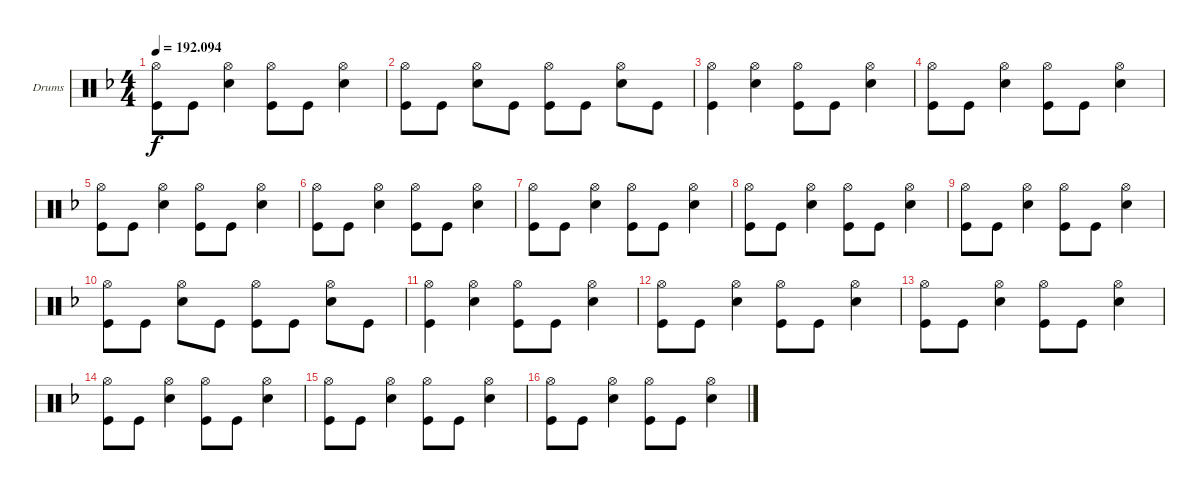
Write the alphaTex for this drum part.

\bracketExtendMode groupsimilarinstruments
\firstSystemTrackNameOrientation horizontal
\otherSystemsTrackNameOrientation horizontal
\track ("Александр Манякин" "Drums") {instrument percussion}
\staff {score}
\articulation defaults
\ts (4 4)
\tempo
192.094
\accidentals auto
\clef neutral
\ottava regular
\simile none
\ks f
("Hi-Hat (open)" "Kick (hit)").8{dy f} "Kick (hit)".8 ("Hi-Hat (open)" "Snare (hit) 2").4 ("Hi-Hat (open)" "Kick (hit)").8 "Kick (hit)".8 ("Hi-Hat (open)" "Snare (hit) 2").4 |
("Hi-Hat (open)" "Kick (hit)").8 "Kick (hit)".8 ("Hi-Hat (open)" "Snare (hit) 2").8 "Kick (hit)".8 ("Hi-Hat (open)" "Kick (hit)").8 "Kick (hit)".8 ("Hi-Hat (open)" "Snare (hit) 2").8 "Kick (hit)".8 |
("Hi-Hat (open)" "Kick (hit)").4 ("Hi-Hat (open)" "Snare (hit) 2").4 ("Hi-Hat (open)" "Kick (hit)").8 "Kick (hit)".8 ("Hi-Hat (open)" "Snare (hit) 2").4 |
("Hi-Hat (open)" "Kick (hit)").8 "Kick (hit)".8 ("Hi-Hat (open)" "Snare (hit) 2").4 ("Hi-Hat (open)" "Kick (hit)").8 "Kick (hit)".8 ("Hi-Hat (open)" "Snare (hit) 2").4 |
("Hi-Hat (open)" "Kick (hit)").8 "Kick (hit)".8 ("Hi-Hat (open)" "Snare (hit) 2").4 ("Hi-Hat (open)" "Kick (hit)").8 "Kick (hit)".8 ("Hi-Hat (open)" "Snare (hit) 2").4 |
("Hi-Hat (open)" "Kick (hit)").8 "Kick (hit)".8 ("Hi-Hat (open)" "Snare (hit) 2").4 ("Hi-Hat (open)" "Kick (hit)").8 "Kick (hit)".8 ("Hi-Hat (open)" "Snare (hit) 2").4 |
("Hi-Hat (open)" "Kick (hit)").8 "Kick (hit)".8 ("Hi-Hat (open)" "Snare (hit) 2").4 ("Hi-Hat (open)" "Kick (hit)").8 "Kick (hit)".8 ("Hi-Hat (open)" "Snare (hit) 2").4 |
("Hi-Hat (open)" "Kick (hit)").8 "Kick (hit)".8 ("Hi-Hat (open)" "Snare (hit) 2").4 ("Hi-Hat (open)" "Kick (hit)").8 "Kick (hit)".8 ("Hi-Hat (open)" "Snare (hit) 2").4 |
("Hi-Hat (open)" "Kick (hit)").8 "Kick (hit)".8 ("Hi-Hat (open)" "Snare (hit) 2").4 ("Hi-Hat (open)" "Kick (hit)").8 "Kick (hit)".8 ("Hi-Hat (open)" "Snare (hit) 2").4 |
("Hi-Hat (open)" "Kick (hit)").8 "Kick (hit)".8 ("Hi-Hat (open)" "Snare (hit) 2").8 "Kick (hit)".8 ("Hi-Hat (open)" "Kick (hit)").8 "Kick (hit)".8 ("Hi-Hat (open)" "Snare (hit) 2").8 "Kick (hit)".8 |
("Hi-Hat (open)" "Kick (hit)").4 ("Hi-Hat (open)" "Snare (hit) 2").4 ("Hi-Hat (open)" "Kick (hit)").8 "Kick (hit)".8 ("Hi-Hat (open)" "Snare (hit) 2").4 |
("Hi-Hat (open)" "Kick (hit)").8 "Kick (hit)".8 ("Hi-Hat (open)" "Snare (hit) 2").4 ("Hi-Hat (open)" "Kick (hit)").8 "Kick (hit)".8 ("Hi-Hat (open)" "Snare (hit) 2").4 |
("Hi-Hat (open)" "Kick (hit)").8 "Kick (hit)".8 ("Hi-Hat (open)" "Snare (hit) 2").4 ("Hi-Hat (open)" "Kick (hit)").8 "Kick (hit)".8 ("Hi-Hat (open)" "Snare (hit) 2").4 |
("Hi-Hat (open)" "Kick (hit)").8 "Kick (hit)".8 ("Hi-Hat (open)" "Snare (hit) 2").4 ("Hi-Hat (open)" "Kick (hit)").8 "Kick (hit)".8 ("Hi-Hat (open)" "Snare (hit) 2").4 |
("Hi-Hat (open)" "Kick (hit)").8 "Kick (hit)".8 ("Hi-Hat (open)" "Snare (hit) 2").4 ("Hi-Hat (open)" "Kick (hit)").8 "Kick (hit)".8 ("Hi-Hat (open)" "Snare (hit) 2").4 |
("Hi-Hat (open)" "Kick (hit)").8 "Kick (hit)".8 ("Hi-Hat (open)" "Snare (hit) 2").4 ("Hi-Hat (open)" "Kick (hit)").8 "Kick (hit)".8 ("Hi-Hat (open)" "Snare (hit) 2").4
